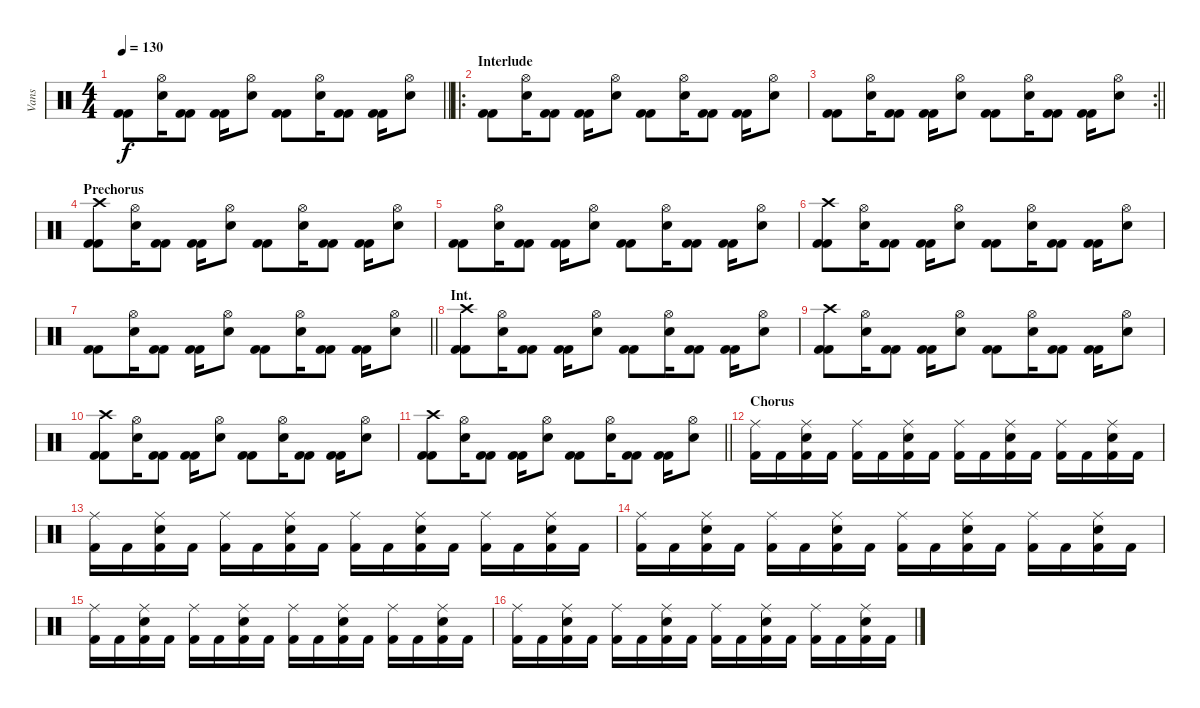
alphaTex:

\track ("Vans" "Vans") {instrument percussion}
\staff {score}
\articulation defaults
\ts (4 4)
\tempo 130
\clef neutral
\barLineRight lightlight
\ks c
("Kick (hit) 2" "Kick (hit) 2").8{dy f} ("Hi-Hat (open)" "Snare (hit) 2").16 ("Kick (hit) 2" "Kick (hit) 2").8 ("Kick (hit) 2" "Kick (hit) 2").16 ("Hi-Hat (open)" "Snare (hit) 2").8 ("Kick (hit) 2" "Kick (hit) 2").8 ("Hi-Hat (open)" "Snare (hit) 2").16 ("Kick (hit) 2" "Kick (hit) 2").8 ("Kick (hit) 2" "Kick (hit) 2").16 ("Hi-Hat (open)" "Snare (hit) 2").8 |
\ro
\section ("" "Interlude")
("Kick (hit) 2" "Kick (hit) 2").8 ("Hi-Hat (open)" "Snare (hit) 2").16 ("Kick (hit) 2" "Kick (hit) 2").8 ("Kick (hit) 2" "Kick (hit) 2").16 ("Hi-Hat (open)" "Snare (hit) 2").8 ("Kick (hit) 2" "Kick (hit) 2").8 ("Hi-Hat (open)" "Snare (hit) 2").16 ("Kick (hit) 2" "Kick (hit) 2").8 ("Kick (hit) 2" "Kick (hit) 2").16 ("Hi-Hat (open)" "Snare (hit) 2").8 |
\rc 2
\barLineRight lightlight
("Kick (hit) 2" "Kick (hit) 2").8 ("Hi-Hat (open)" "Snare (hit) 2").16 ("Kick (hit) 2" "Kick (hit) 2").8 ("Kick (hit) 2" "Kick (hit) 2").16 ("Hi-Hat (open)" "Snare (hit) 2").8 ("Kick (hit) 2" "Kick (hit) 2").8 ("Hi-Hat (open)" "Snare (hit) 2").16 ("Kick (hit) 2" "Kick (hit) 2").8 ("Kick (hit) 2" "Kick (hit) 2").16 ("Hi-Hat (open)" "Snare (hit) 2").8 |
\section ("" "Prechorus")
("Crash high (hit)" "Kick (hit) 2" "Kick (hit) 2").8 ("Hi-Hat (open)" "Snare (hit) 2").16 ("Kick (hit) 2" "Kick (hit) 2").8 ("Kick (hit) 2" "Kick (hit) 2").16 ("Hi-Hat (open)" "Snare (hit) 2").8 ("Kick (hit) 2" "Kick (hit) 2").8 ("Hi-Hat (open)" "Snare (hit) 2").16 ("Kick (hit) 2" "Kick (hit) 2").8 ("Kick (hit) 2" "Kick (hit) 2").16 ("Hi-Hat (open)" "Snare (hit) 2").8 |
("Kick (hit) 2" "Kick (hit) 2").8 ("Hi-Hat (open)" "Snare (hit) 2").16 ("Kick (hit) 2" "Kick (hit) 2").8 ("Kick (hit) 2" "Kick (hit) 2").16 ("Hi-Hat (open)" "Snare (hit) 2").8 ("Kick (hit) 2" "Kick (hit) 2").8 ("Hi-Hat (open)" "Snare (hit) 2").16 ("Kick (hit) 2" "Kick (hit) 2").8 ("Kick (hit) 2" "Kick (hit) 2").16 ("Hi-Hat (open)" "Snare (hit) 2").8 |
("Crash high (hit)" "Kick (hit) 2" "Kick (hit) 2").8 ("Hi-Hat (open)" "Snare (hit) 2").16 ("Kick (hit) 2" "Kick (hit) 2").8 ("Kick (hit) 2" "Kick (hit) 2").16 ("Hi-Hat (open)" "Snare (hit) 2").8 ("Kick (hit) 2" "Kick (hit) 2").8 ("Hi-Hat (open)" "Snare (hit) 2").16 ("Kick (hit) 2" "Kick (hit) 2").8 ("Kick (hit) 2" "Kick (hit) 2").16 ("Hi-Hat (open)" "Snare (hit) 2").8 |
\barLineRight lightlight
("Kick (hit) 2" "Kick (hit) 2").8 ("Hi-Hat (open)" "Snare (hit) 2").16 ("Kick (hit) 2" "Kick (hit) 2").8 ("Kick (hit) 2" "Kick (hit) 2").16 ("Hi-Hat (open)" "Snare (hit) 2").8 ("Kick (hit) 2" "Kick (hit) 2").8 ("Hi-Hat (open)" "Snare (hit) 2").16 ("Kick (hit) 2" "Kick (hit) 2").8 ("Kick (hit) 2" "Kick (hit) 2").16 ("Hi-Hat (open)" "Snare (hit) 2").8 |
\section ("" "Int.")
("Crash high (hit)" "Kick (hit) 2" "Kick (hit) 2").8 ("Hi-Hat (open)" "Snare (hit) 2").16 ("Kick (hit) 2" "Kick (hit) 2").8 ("Kick (hit) 2" "Kick (hit) 2").16 ("Hi-Hat (open)" "Snare (hit) 2").8 ("Kick (hit) 2" "Kick (hit) 2").8 ("Hi-Hat (open)" "Snare (hit) 2").16 ("Kick (hit) 2" "Kick (hit) 2").8 ("Kick (hit) 2" "Kick (hit) 2").16 ("Hi-Hat (open)" "Snare (hit) 2").8 |
("Crash high (hit)" "Kick (hit) 2" "Kick (hit) 2").8 ("Hi-Hat (open)" "Snare (hit) 2").16 ("Kick (hit) 2" "Kick (hit) 2").8 ("Kick (hit) 2" "Kick (hit) 2").16 ("Hi-Hat (open)" "Snare (hit) 2").8 ("Kick (hit) 2" "Kick (hit) 2").8 ("Hi-Hat (open)" "Snare (hit) 2").16 ("Kick (hit) 2" "Kick (hit) 2").8 ("Kick (hit) 2" "Kick (hit) 2").16 ("Hi-Hat (open)" "Snare (hit) 2").8 |
("Crash high (hit)" "Kick (hit) 2" "Kick (hit) 2").8 ("Hi-Hat (open)" "Snare (hit) 2").16 ("Kick (hit) 2" "Kick (hit) 2").8 ("Kick (hit) 2" "Kick (hit) 2").16 ("Hi-Hat (open)" "Snare (hit) 2").8 ("Kick (hit) 2" "Kick (hit) 2").8 ("Hi-Hat (open)" "Snare (hit) 2").16 ("Kick (hit) 2" "Kick (hit) 2").8 ("Kick (hit) 2" "Kick (hit) 2").16 ("Hi-Hat (open)" "Snare (hit) 2").8 |
\barLineRight lightlight
("Crash high (hit)" "Kick (hit) 2" "Kick (hit) 2").8 ("Hi-Hat (open)" "Snare (hit) 2").16 ("Kick (hit) 2" "Kick (hit) 2").8 ("Kick (hit) 2" "Kick (hit) 2").16 ("Hi-Hat (open)" "Snare (hit) 2").8 ("Kick (hit) 2" "Kick (hit) 2").8 ("Hi-Hat (open)" "Snare (hit) 2").16 ("Kick (hit) 2" "Kick (hit) 2").8 ("Kick (hit) 2" "Kick (hit) 2").16 ("Hi-Hat (open)" "Snare (hit) 2").8 |
\section ("" "Chorus")
("Ride (middle)" "Kick (hit) 2").16 "Kick (hit) 2".16 ("Ride (middle)" "Kick (hit) 2" "Snare (hit) 2").16 "Kick (hit) 2".16 ("Ride (middle)" "Kick (hit) 2").16 "Kick (hit) 2".16 ("Ride (middle)" "Kick (hit) 2" "Snare (hit) 2").16 "Kick (hit) 2".16 ("Ride (middle)" "Kick (hit) 2").16 "Kick (hit) 2".16 ("Ride (middle)" "Kick (hit) 2" "Snare (hit) 2").16 "Kick (hit) 2".16 ("Ride (middle)" "Kick (hit) 2").16 "Kick (hit) 2".16 ("Ride (middle)" "Kick (hit) 2" "Snare (hit) 2").16 "Kick (hit) 2".16 |
("Ride (middle)" "Kick (hit) 2").16 "Kick (hit) 2".16 ("Ride (middle)" "Kick (hit) 2" "Snare (hit) 2").16 "Kick (hit) 2".16 ("Ride (middle)" "Kick (hit) 2").16 "Kick (hit) 2".16 ("Ride (middle)" "Kick (hit) 2" "Snare (hit) 2").16 "Kick (hit) 2".16 ("Ride (middle)" "Kick (hit) 2").16 "Kick (hit) 2".16 ("Ride (middle)" "Kick (hit) 2" "Snare (hit) 2").16 "Kick (hit) 2".16 ("Ride (middle)" "Kick (hit) 2").16 "Kick (hit) 2".16 ("Ride (middle)" "Kick (hit) 2" "Snare (hit) 2").16 "Kick (hit) 2".16 |
("Ride (middle)" "Kick (hit) 2").16 "Kick (hit) 2".16 ("Ride (middle)" "Kick (hit) 2" "Snare (hit) 2").16 "Kick (hit) 2".16 ("Ride (middle)" "Kick (hit) 2").16 "Kick (hit) 2".16 ("Ride (middle)" "Kick (hit) 2" "Snare (hit) 2").16 "Kick (hit) 2".16 ("Ride (middle)" "Kick (hit) 2").16 "Kick (hit) 2".16 ("Ride (middle)" "Kick (hit) 2" "Snare (hit) 2").16 "Kick (hit) 2".16 ("Ride (middle)" "Kick (hit) 2").16 "Kick (hit) 2".16 ("Ride (middle)" "Kick (hit) 2" "Snare (hit) 2").16 "Kick (hit) 2".16 |
("Ride (middle)" "Kick (hit) 2").16 "Kick (hit) 2".16 ("Ride (middle)" "Kick (hit) 2" "Snare (hit) 2").16 "Kick (hit) 2".16 ("Ride (middle)" "Kick (hit) 2").16 "Kick (hit) 2".16 ("Ride (middle)" "Kick (hit) 2" "Snare (hit) 2").16 "Kick (hit) 2".16 ("Ride (middle)" "Kick (hit) 2").16 "Kick (hit) 2".16 ("Ride (middle)" "Kick (hit) 2" "Snare (hit) 2").16 "Kick (hit) 2".16 ("Ride (middle)" "Kick (hit) 2").16 "Kick (hit) 2".16 ("Ride (middle)" "Kick (hit) 2" "Snare (hit) 2").16 "Kick (hit) 2".16 |
("Ride (middle)" "Kick (hit) 2").16 "Kick (hit) 2".16 ("Ride (middle)" "Kick (hit) 2" "Snare (hit) 2").16 "Kick (hit) 2".16 ("Ride (middle)" "Kick (hit) 2").16 "Kick (hit) 2".16 ("Ride (middle)" "Kick (hit) 2" "Snare (hit) 2").16 "Kick (hit) 2".16 ("Ride (middle)" "Kick (hit) 2").16 "Kick (hit) 2".16 ("Ride (middle)" "Kick (hit) 2" "Snare (hit) 2").16 "Kick (hit) 2".16 ("Ride (middle)" "Kick (hit) 2").16 "Kick (hit) 2".16 ("Ride (middle)" "Kick (hit) 2" "Snare (hit) 2").16 "Kick (hit) 2".16
